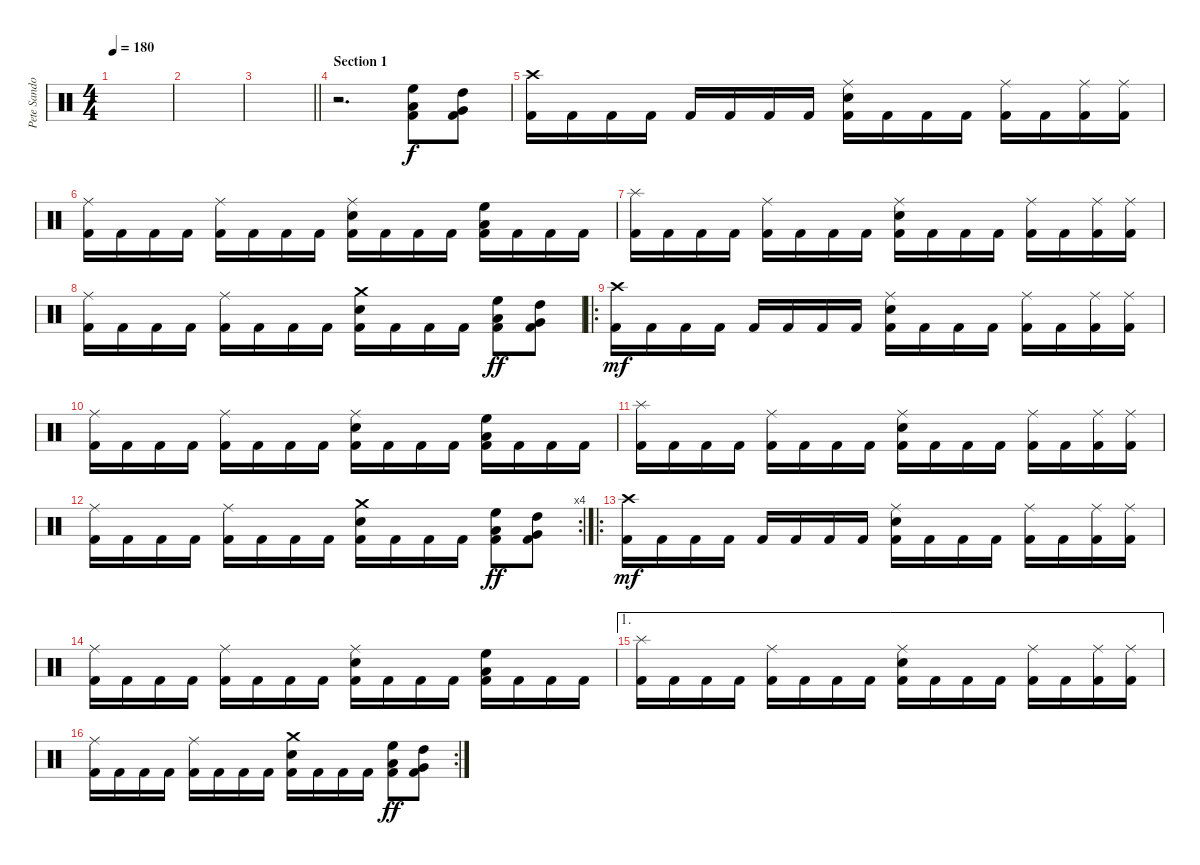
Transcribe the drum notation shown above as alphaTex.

\track ("Pete Sandoval" "Pete Sando") {instrument percussion}
\staff {score}
\articulation defaults
\ts (4 4)
\tempo 180
\clef neutral
\ks c
|
|
\barLineRight lightlight
|
\section ("" "Section 1")
r.2{d} ("High Floor Tom (hit)" "Low Tom (hit)" "Kick (hit) 2").8 ("High Tom (hit)" "Very Low Tom (hit)" "Kick (hit) 2").8 |
("Crash high (hit)" "Kick (hit) 2").16 "Kick (hit) 2".16 "Kick (hit) 2".16 "Kick (hit) 2".16 "Kick (hit) 2".16 "Kick (hit) 2".16 "Kick (hit) 2".16 "Kick (hit) 2".16 ("Snare (hit) 2" "Ride (middle)" "Kick (hit) 2").16 "Kick (hit) 2".16 "Kick (hit) 2".16 "Kick (hit) 2".16 ("Ride (middle)" "Kick (hit) 2").16 "Kick (hit) 2".16 ("Ride (middle)" "Kick (hit) 2").16 ("Ride (middle)" "Kick (hit) 2").16 |
("Ride (middle)" "Kick (hit) 2").16 "Kick (hit) 2".16 "Kick (hit) 2".16 "Kick (hit) 2".16 ("Ride (middle)" "Kick (hit) 2").16 "Kick (hit) 2".16 "Kick (hit) 2".16 "Kick (hit) 2".16 ("Snare (hit) 2" "Ride (middle)" "Kick (hit) 2").16 "Kick (hit) 2".16 "Kick (hit) 2".16 "Kick (hit) 2".16 ("High Floor Tom (hit)" "Low Tom (hit)" "Kick (hit) 2").16 "Kick (hit) 2".16 "Kick (hit) 2".16 "Kick (hit) 2".16 |
("Splash (hit)" "Kick (hit) 2").16 "Kick (hit) 2".16 "Kick (hit) 2".16 "Kick (hit) 2".16 ("Ride (middle)" "Kick (hit) 2").16 "Kick (hit) 2".16 "Kick (hit) 2".16 "Kick (hit) 2".16 ("Snare (hit) 2" "Ride (middle)" "Kick (hit) 2").16 "Kick (hit) 2".16 "Kick (hit) 2".16 "Kick (hit) 2".16 ("Ride (middle)" "Kick (hit) 2").16 "Kick (hit) 2".16 ("Ride (middle)" "Kick (hit) 2").16 ("Ride (middle)" "Kick (hit) 2").16 |
("Ride (middle)" "Kick (hit) 2").16 "Kick (hit) 2".16 "Kick (hit) 2".16 "Kick (hit) 2".16 ("Ride (middle)" "Kick (hit) 2").16 "Kick (hit) 2".16 "Kick (hit) 2".16 "Kick (hit) 2".16 ("Snare (hit) 2" "Crash medium (hit)" "Kick (hit) 2").16 "Kick (hit) 2".16 "Kick (hit) 2".16 "Kick (hit) 2".16 ("High Floor Tom (hit)" "Low Tom (hit)" "Kick (hit) 2").8{dy ff} ("High Tom (hit)" "Very Low Tom (hit)" "Kick (hit) 2").8 |
\ro
("Crash high (hit)" "Kick (hit) 2").16{dy mf} "Kick (hit) 2".16 "Kick (hit) 2".16 "Kick (hit) 2".16 "Kick (hit) 2".16 "Kick (hit) 2".16 "Kick (hit) 2".16 "Kick (hit) 2".16 ("Snare (hit) 2" "Ride (middle)" "Kick (hit) 2").16 "Kick (hit) 2".16 "Kick (hit) 2".16 "Kick (hit) 2".16 ("Ride (middle)" "Kick (hit) 2").16 "Kick (hit) 2".16 ("Ride (middle)" "Kick (hit) 2").16 ("Ride (middle)" "Kick (hit) 2").16 |
("Ride (middle)" "Kick (hit) 2").16 "Kick (hit) 2".16 "Kick (hit) 2".16 "Kick (hit) 2".16 ("Ride (middle)" "Kick (hit) 2").16 "Kick (hit) 2".16 "Kick (hit) 2".16 "Kick (hit) 2".16 ("Snare (hit) 2" "Ride (middle)" "Kick (hit) 2").16 "Kick (hit) 2".16 "Kick (hit) 2".16 "Kick (hit) 2".16 ("High Floor Tom (hit)" "Low Tom (hit)" "Kick (hit) 2").16 "Kick (hit) 2".16 "Kick (hit) 2".16 "Kick (hit) 2".16 |
("Splash (hit)" "Kick (hit) 2").16 "Kick (hit) 2".16 "Kick (hit) 2".16 "Kick (hit) 2".16 ("Ride (middle)" "Kick (hit) 2").16 "Kick (hit) 2".16 "Kick (hit) 2".16 "Kick (hit) 2".16 ("Snare (hit) 2" "Ride (middle)" "Kick (hit) 2").16 "Kick (hit) 2".16 "Kick (hit) 2".16 "Kick (hit) 2".16 ("Ride (middle)" "Kick (hit) 2").16 "Kick (hit) 2".16 ("Ride (middle)" "Kick (hit) 2").16 ("Ride (middle)" "Kick (hit) 2").16 |
\rc 4
("Ride (middle)" "Kick (hit) 2").16 "Kick (hit) 2".16 "Kick (hit) 2".16 "Kick (hit) 2".16 ("Ride (middle)" "Kick (hit) 2").16 "Kick (hit) 2".16 "Kick (hit) 2".16 "Kick (hit) 2".16 ("Snare (hit) 2" "Crash medium (hit)" "Kick (hit) 2").16 "Kick (hit) 2".16 "Kick (hit) 2".16 "Kick (hit) 2".16 ("High Floor Tom (hit)" "Low Tom (hit)" "Kick (hit) 2").8{dy ff} ("High Tom (hit)" "Very Low Tom (hit)" "Kick (hit) 2").8 |
\ro
("Crash high (hit)" "Kick (hit) 2").16{dy mf} "Kick (hit) 2".16 "Kick (hit) 2".16 "Kick (hit) 2".16 "Kick (hit) 2".16 "Kick (hit) 2".16 "Kick (hit) 2".16 "Kick (hit) 2".16 ("Snare (hit) 2" "Ride (middle)" "Kick (hit) 2").16 "Kick (hit) 2".16 "Kick (hit) 2".16 "Kick (hit) 2".16 ("Ride (middle)" "Kick (hit) 2").16 "Kick (hit) 2".16 ("Ride (middle)" "Kick (hit) 2").16 ("Ride (middle)" "Kick (hit) 2").16 |
("Ride (middle)" "Kick (hit) 2").16 "Kick (hit) 2".16 "Kick (hit) 2".16 "Kick (hit) 2".16 ("Ride (middle)" "Kick (hit) 2").16 "Kick (hit) 2".16 "Kick (hit) 2".16 "Kick (hit) 2".16 ("Snare (hit) 2" "Ride (middle)" "Kick (hit) 2").16 "Kick (hit) 2".16 "Kick (hit) 2".16 "Kick (hit) 2".16 ("High Floor Tom (hit)" "Low Tom (hit)" "Kick (hit) 2").16 "Kick (hit) 2".16 "Kick (hit) 2".16 "Kick (hit) 2".16 |
\ae 1
("Splash (hit)" "Kick (hit) 2").16 "Kick (hit) 2".16 "Kick (hit) 2".16 "Kick (hit) 2".16 ("Ride (middle)" "Kick (hit) 2").16 "Kick (hit) 2".16 "Kick (hit) 2".16 "Kick (hit) 2".16 ("Snare (hit) 2" "Ride (middle)" "Kick (hit) 2").16 "Kick (hit) 2".16 "Kick (hit) 2".16 "Kick (hit) 2".16 ("Ride (middle)" "Kick (hit) 2").16 "Kick (hit) 2".16 ("Ride (middle)" "Kick (hit) 2").16 ("Ride (middle)" "Kick (hit) 2").16 |
\rc 2
("Ride (middle)" "Kick (hit) 2").16 "Kick (hit) 2".16 "Kick (hit) 2".16 "Kick (hit) 2".16 ("Ride (middle)" "Kick (hit) 2").16 "Kick (hit) 2".16 "Kick (hit) 2".16 "Kick (hit) 2".16 ("Snare (hit) 2" "Crash medium (hit)" "Kick (hit) 2").16 "Kick (hit) 2".16 "Kick (hit) 2".16 "Kick (hit) 2".16 ("High Floor Tom (hit)" "Low Tom (hit)" "Kick (hit) 2").8{dy ff} ("High Tom (hit)" "Very Low Tom (hit)" "Kick (hit) 2").8
